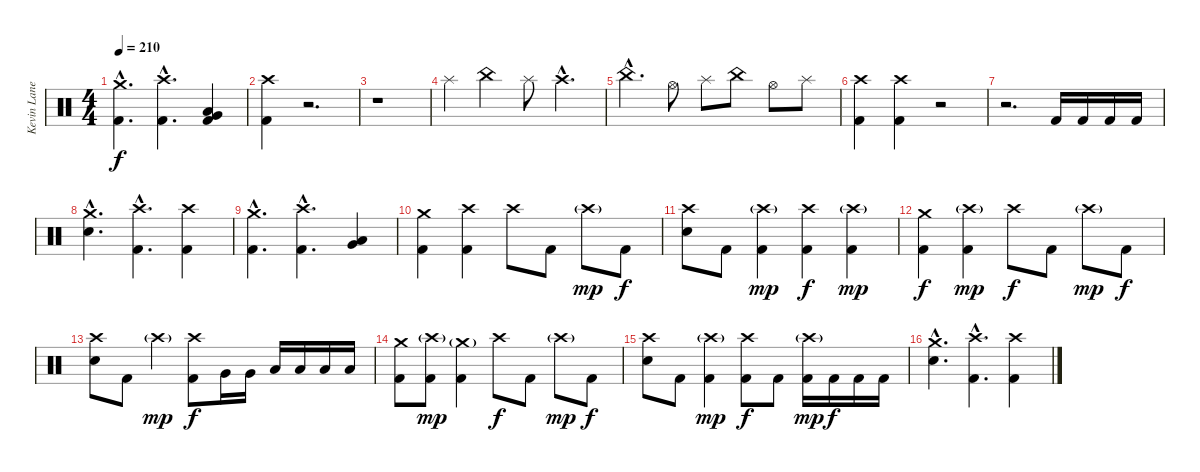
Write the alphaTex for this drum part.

\track ("Kevin Lane (Drums)" "Kevin Lane") {instrument percussion}
\staff {score}
\articulation defaults
\ts (4 4)
\tempo 210
\clef neutral
\ks c
("Crash medium (hit)"{hac} "Kick (hit) 2"{hac}).4{d dy f} ("Crash high (hit)"{hac} "Kick (hit) 2"{hac}).4{d} ("Kick (hit) 2" "Low Floor Tom (hit)" "Very Low Tom (hit)").4 |
("Crash high (hit)" "Kick (hit) 2").4 r.2{d} |
r.1 |
"Splash (hit)".4 "China (hit)".4 "Splash (hit)".8 "Crash high (hit)"{hac}.4{d} |
"China (hit)"{hac}.4{d} "Hi-Hat (open)".8 "Splash (hit)".8 "China (hit)".8 "Hi-Hat (open)".8 "Splash (hit)".8 |
("Crash high (hit)" "Kick (hit) 2").4 ("Crash high (hit)" "Kick (hit) 2").4 r.2 |
r.2{d} "Kick (hit) 2".16 "Kick (hit) 2".16 "Kick (hit) 2".16 "Kick (hit) 2".16 |
("Crash medium (hit)"{hac} "Snare (hit) 2"{hac}).4{d} ("Crash high (hit)"{hac} "Kick (hit) 2"{hac}).4{d} ("Crash high (hit)" "Kick (hit) 2").4 |
("Crash medium (hit)"{hac} "Kick (hit) 2"{hac}).4{d} ("Crash high (hit)"{hac} "Kick (hit) 2"{hac}).4{d} ("Low Floor Tom (hit)" "Very Low Tom (hit)").4 |
("Crash medium (hit)" "Kick (hit) 2").4 ("Crash high (hit)" "Kick (hit) 2").4 "Crash high (hit)".8 "Kick (hit) 2".8 "Crash high (hit)"{g}.8{dy mp} "Kick (hit) 2".8{dy f} |
("Crash high (hit)" "Snare (hit) 2").8 "Kick (hit) 2".8 ("Crash high (hit)"{g} "Kick (hit) 2").4{dy mp} ("Crash high (hit)" "Kick (hit) 2").4{dy f} ("Crash high (hit)"{g} "Kick (hit) 2").4{dy mp} |
("Crash medium (hit)" "Kick (hit) 2").4{dy f} ("Crash high (hit)"{g} "Kick (hit) 2").4{dy mp} "Crash high (hit)".8{dy f} "Kick (hit) 2".8 "Crash high (hit)"{g}.8{dy mp} "Kick (hit) 2".8{dy f} |
("Crash high (hit)" "Snare (hit) 2").8 "Kick (hit) 2".8 "Crash high (hit)"{g}.4{dy mp} ("Crash high (hit)" "Kick (hit) 2").8{dy f} "Very Low Tom (hit)".16 "Very Low Tom (hit)".16 "Low Floor Tom (hit)".16 "Low Floor Tom (hit)".16 "Low Floor Tom (hit)".16 "Low Floor Tom (hit)".16 |
("Crash medium (hit)" "Kick (hit) 2").8 ("Crash high (hit)"{g} "Kick (hit) 2").8{dy mp} ("Crash medium (hit)"{g} "Kick (hit) 2").4 "Crash high (hit)".8{dy f} "Kick (hit) 2".8 "Crash high (hit)"{g}.8{dy mp} "Kick (hit) 2".8{dy f} |
("Crash high (hit)" "Snare (hit) 2").8 "Kick (hit) 2".8 ("Crash high (hit)"{g} "Kick (hit) 2").4{dy mp} ("Crash high (hit)" "Kick (hit) 2").8{dy f} "Kick (hit) 2".8 ("Crash high (hit)"{g} "Kick (hit) 2").16{dy mp} "Kick (hit) 2".16{dy f} "Kick (hit) 2".16 "Kick (hit) 2".16 |
("Crash medium (hit)"{hac} "Snare (hit) 2"{hac}).4{d} ("Crash high (hit)"{hac} "Kick (hit) 2"{hac}).4{d} ("Crash high (hit)" "Kick (hit) 2").4
